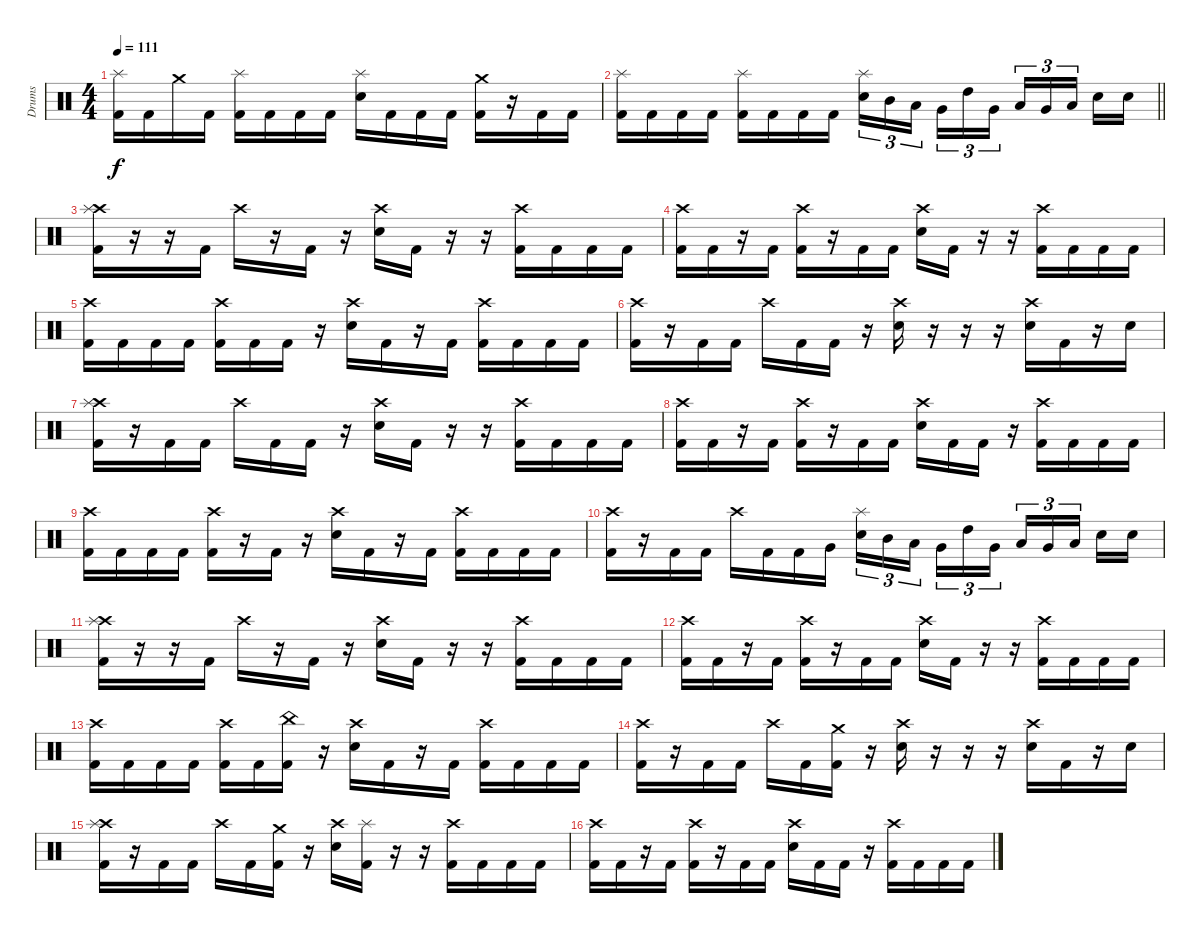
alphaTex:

\track ("Drums" "Drums") {instrument percussion}
\staff {score}
\articulation defaults
\ts (4 4)
\tempo 111
\clef neutral
\ks c
("Splash (hit)" "Kick (hit) 2").16{dy f} "Kick (hit) 2".16 "Crash medium (hit)".16 "Kick (hit) 2".16 ("Splash (hit)" "Kick (hit) 2").16 "Kick (hit) 2".16 "Kick (hit) 2".16 "Kick (hit) 2".16 ("Splash (hit)" "Electric Snare (hit)").16 "Kick (hit) 2".16 "Kick (hit) 2".16 "Kick (hit) 2".16 ("Crash medium (hit)" "Kick (hit) 2").16 r.16 "Kick (hit) 2".16 "Kick (hit) 2".16 |
\barLineRight lightlight
("Splash (hit)" "Kick (hit) 2").16 "Kick (hit) 2".16 "Kick (hit) 2".16 "Kick (hit) 2".16 ("Splash (hit)" "Kick (hit) 2").16 "Kick (hit) 2".16 "Kick (hit) 2".16 "Kick (hit) 2".16 ("Splash (hit)" "Electric Snare (hit)").16{tu (3 2)} "Mid Tom (hit)".16{tu (3 2)} "Low Tom (hit)".16{tu (3 2)} "Very Low Tom (hit)".16{tu (3 2)} "High Tom (hit)".16{tu (3 2)} "Very Low Tom (hit)".16{tu (3 2)} "Low Tom (hit)".16{tu (3 2)} "Very Low Tom (hit)".16{tu (3 2)} "Low Floor Tom (hit)".16{tu (3 2)} "Electric Snare (hit)".16 "Electric Snare (hit)".16 |
\section ("" "")
("Crash high (hit)" "Splash (hit)" "Kick (hit) 2").16 r.16 r.16 "Kick (hit) 2".16 "Crash high (hit)".16 r.16 "Kick (hit) 2".16 r.16 ("Crash high (hit)" "Electric Snare (hit)").16 "Kick (hit) 2".16 r.16 r.16 ("Crash high (hit)" "Kick (hit) 2").16 "Kick (hit) 2".16 "Kick (hit) 2".16 "Kick (hit) 2".16 |
("Crash high (hit)" "Kick (hit) 2").16 "Kick (hit) 2".16 r.16 "Kick (hit) 2".16 ("Crash high (hit)" "Kick (hit) 2").16 r.16 "Kick (hit) 2".16 "Kick (hit) 2".16 ("Crash high (hit)" "Electric Snare (hit)").16 "Kick (hit) 2".16 r.16 r.16 ("Crash high (hit)" "Kick (hit) 2").16 "Kick (hit) 2".16 "Kick (hit) 2".16 "Kick (hit) 2".16 |
("Crash high (hit)" "Kick (hit) 2").16 "Kick (hit) 2".16 "Kick (hit) 2".16 "Kick (hit) 2".16 ("Crash high (hit)" "Kick (hit) 2").16 "Kick (hit) 2".16 "Kick (hit) 2".16 r.16 ("Crash high (hit)" "Electric Snare (hit)").16 "Kick (hit) 2".16 r.16 "Kick (hit) 2".16 ("Crash high (hit)" "Kick (hit) 2").16 "Kick (hit) 2".16 "Kick (hit) 2".16 "Kick (hit) 2".16 |
("Crash high (hit)" "Kick (hit) 2").16 r.16 "Kick (hit) 2".16 "Kick (hit) 2".16 "Crash high (hit)".16 "Kick (hit) 2".16 "Kick (hit) 2".16 r.16 ("Crash high (hit)" "Electric Snare (hit)").16 r.16 r.16 r.16 ("Crash high (hit)" "Electric Snare (hit)").16 "Kick (hit) 2".16 r.16 "Electric Snare (hit)".16 |
("Crash high (hit)" "Splash (hit)" "Kick (hit) 2").16 r.16 "Kick (hit) 2".16 "Kick (hit) 2".16 "Crash high (hit)".16 "Kick (hit) 2".16 "Kick (hit) 2".16 r.16 ("Crash high (hit)" "Electric Snare (hit)").16 "Kick (hit) 2".16 r.16 r.16 ("Crash high (hit)" "Kick (hit) 2").16 "Kick (hit) 2".16 "Kick (hit) 2".16 "Kick (hit) 2".16 |
("Crash high (hit)" "Kick (hit) 2").16 "Kick (hit) 2".16 r.16 "Kick (hit) 2".16 ("Crash high (hit)" "Kick (hit) 2").16 r.16 "Kick (hit) 2".16 "Kick (hit) 2".16 ("Crash high (hit)" "Electric Snare (hit)").16 "Kick (hit) 2".16 "Kick (hit) 2".16 r.16 ("Crash high (hit)" "Kick (hit) 2").16 "Kick (hit) 2".16 "Kick (hit) 2".16 "Kick (hit) 2".16 |
("Crash high (hit)" "Kick (hit) 2").16 "Kick (hit) 2".16 "Kick (hit) 2".16 "Kick (hit) 2".16 ("Crash high (hit)" "Kick (hit) 2").16 r.16 "Kick (hit) 2".16 r.16 ("Crash high (hit)" "Electric Snare (hit)").16 "Kick (hit) 2".16 r.16 "Kick (hit) 2".16 ("Crash high (hit)" "Kick (hit) 2").16 "Kick (hit) 2".16 "Kick (hit) 2".16 "Kick (hit) 2".16 |
("Crash high (hit)" "Kick (hit) 2").16 r.16 "Kick (hit) 2".16 "Kick (hit) 2".16 "Crash high (hit)".16 "Kick (hit) 2".16 "Kick (hit) 2".16 "Very Low Tom (hit)".16 ("Splash (hit)" "Electric Snare (hit)").16{tu (3 2)} "Mid Tom (hit)".16{tu (3 2)} "Low Tom (hit)".16{tu (3 2)} "Very Low Tom (hit)".16{tu (3 2)} "High Tom (hit)".16{tu (3 2)} "Very Low Tom (hit)".16{tu (3 2)} "Low Tom (hit)".16{tu (3 2)} "Very Low Tom (hit)".16{tu (3 2)} "Low Floor Tom (hit)".16{tu (3 2)} "Electric Snare (hit)".16 "Electric Snare (hit)".16 |
("Crash high (hit)" "Splash (hit)" "Kick (hit) 2").16 r.16 r.16 "Kick (hit) 2".16 "Crash high (hit)".16 r.16 "Kick (hit) 2".16 r.16 ("Crash high (hit)" "Electric Snare (hit)").16 "Kick (hit) 2".16 r.16 r.16 ("Crash high (hit)" "Kick (hit) 2").16 "Kick (hit) 2".16 "Kick (hit) 2".16 "Kick (hit) 2".16 |
("Crash high (hit)" "Kick (hit) 2").16 "Kick (hit) 2".16 r.16 "Kick (hit) 2".16 ("Crash high (hit)" "Kick (hit) 2").16 r.16 "Kick (hit) 2".16 "Kick (hit) 2".16 ("Crash high (hit)" "Electric Snare (hit)").16 "Kick (hit) 2".16 r.16 r.16 ("Crash high (hit)" "Kick (hit) 2").16 "Kick (hit) 2".16 "Kick (hit) 2".16 "Kick (hit) 2".16 |
("Crash high (hit)" "Kick (hit) 2").16 "Kick (hit) 2".16 "Kick (hit) 2".16 "Kick (hit) 2".16 ("Crash high (hit)" "Kick (hit) 2").16 "Kick (hit) 2".16 ("China (hit)" "Kick (hit) 2").16 r.16 ("Crash high (hit)" "Electric Snare (hit)").16 "Kick (hit) 2".16 r.16 "Kick (hit) 2".16 ("Crash high (hit)" "Kick (hit) 2").16 "Kick (hit) 2".16 "Kick (hit) 2".16 "Kick (hit) 2".16 |
("Crash high (hit)" "Kick (hit) 2").16 r.16 "Kick (hit) 2".16 "Kick (hit) 2".16 "Crash high (hit)".16 "Kick (hit) 2".16 ("Crash medium (hit)" "Kick (hit) 2").16 r.16 ("Crash high (hit)" "Electric Snare (hit)").16 r.16 r.16 r.16 ("Crash high (hit)" "Electric Snare (hit)").16 "Kick (hit) 2".16 r.16 "Electric Snare (hit)".16 |
("Crash high (hit)" "Splash (hit)" "Kick (hit) 2").16 r.16 "Kick (hit) 2".16 "Kick (hit) 2".16 "Crash high (hit)".16 "Kick (hit) 2".16 ("Crash medium (hit)" "Kick (hit) 2").16 r.16 ("Crash high (hit)" "Electric Snare (hit)").16 ("Splash (hit)" "Kick (hit) 2").16 r.16 r.16 ("Crash high (hit)" "Kick (hit) 2").16 "Kick (hit) 2".16 "Kick (hit) 2".16 "Kick (hit) 2".16 |
("Crash high (hit)" "Kick (hit) 2").16 "Kick (hit) 2".16 r.16 "Kick (hit) 2".16 ("Crash high (hit)" "Kick (hit) 2").16 r.16 "Kick (hit) 2".16 "Kick (hit) 2".16 ("Crash high (hit)" "Electric Snare (hit)").16 "Kick (hit) 2".16 "Kick (hit) 2".16 r.16 ("Crash high (hit)" "Kick (hit) 2").16 "Kick (hit) 2".16 "Kick (hit) 2".16 "Kick (hit) 2".16
